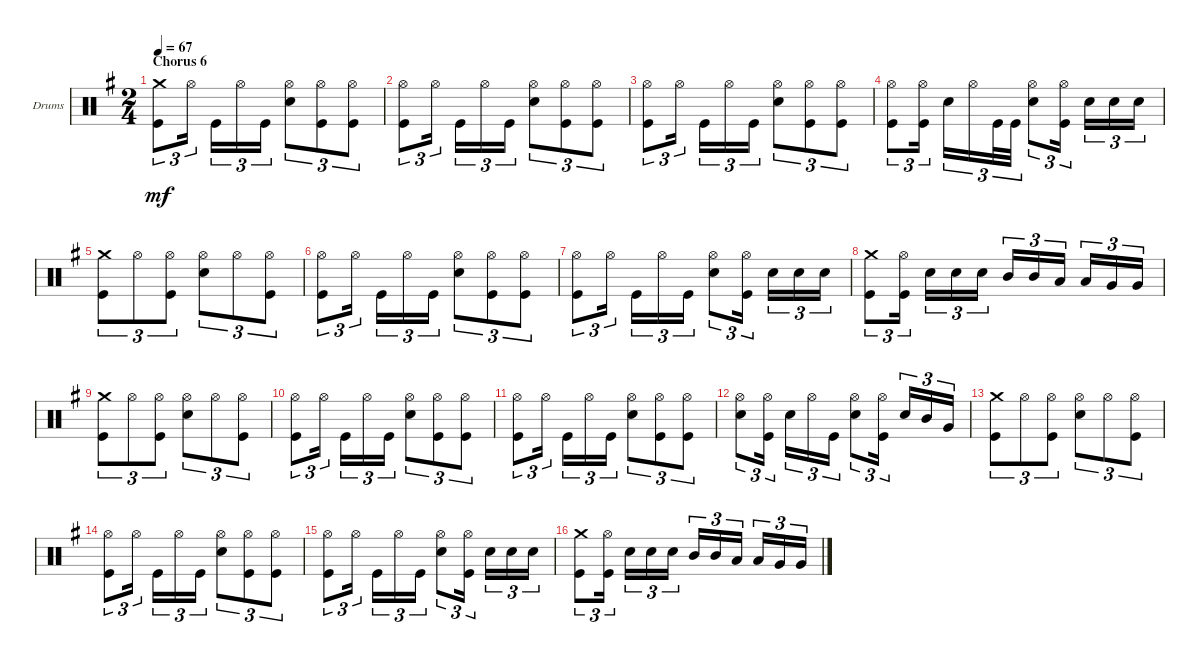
\bracketExtendMode groupsimilarinstruments
\firstSystemTrackNameOrientation horizontal
\otherSystemsTrackNameOrientation horizontal
\track ("drums (Anton Zulganov)" "Drums") {instrument percussion}
\staff {score}
\articulation defaults
\ts (2 4)
\section ("" "Chorus 6")
\tempo 67
\clef neutral
\ks eminor
("Crash medium (hit)" "Kick (hit)").8{tu (3 2) dy mf} "Hi-Hat (open)".16{tu (3 2)} "Kick (hit)".16{tu (3 2)} "Hi-Hat (open)".16{tu (3 2)} "Kick (hit)".16{tu (3 2)} ("Hi-Hat (open)" "Snare (hit) 2").8{tu (3 2)} ("Hi-Hat (open)" "Kick (hit)").8{tu (3 2)} ("Hi-Hat (open)" "Kick (hit)").8{tu (3 2)} |
("Hi-Hat (open)" "Kick (hit)").8{tu (3 2)} "Hi-Hat (open)".16{tu (3 2)} "Kick (hit)".16{tu (3 2)} "Hi-Hat (open)".16{tu (3 2)} "Kick (hit)".16{tu (3 2)} ("Hi-Hat (open)" "Snare (hit) 2").8{tu (3 2)} ("Hi-Hat (open)" "Kick (hit)").8{tu (3 2)} ("Hi-Hat (open)" "Kick (hit)").8{tu (3 2)} |
("Hi-Hat (open)" "Kick (hit)").8{tu (3 2)} "Hi-Hat (open)".16{tu (3 2)} "Kick (hit)".16{tu (3 2)} "Hi-Hat (open)".16{tu (3 2)} "Kick (hit)".16{tu (3 2)} ("Hi-Hat (open)" "Snare (hit) 2").8{tu (3 2)} ("Hi-Hat (open)" "Kick (hit)").8{tu (3 2)} ("Hi-Hat (open)" "Kick (hit)").8{tu (3 2)} |
("Hi-Hat (open)" "Kick (hit)").8{tu (3 2)} ("Hi-Hat (open)" "Kick (hit)").16{tu (3 2)} "Snare (hit) 2".16{tu (3 2)} "Hi-Hat (open)".16{tu (3 2)} "Kick (hit)".32{tu (3 2)} "Kick (hit)".32{tu (3 2)} ("Hi-Hat (open)" "Snare (hit) 2").8{tu (3 2)} ("Hi-Hat (open)" "Kick (hit)").16{tu (3 2)} "Snare (hit) 2".16{tu (3 2)} "Snare (hit) 2".16{tu (3 2)} "Snare (hit) 2".16{tu (3 2)} |
("Crash medium (hit)" "Kick (hit)").8{tu (3 2)} "Hi-Hat (open)".8{tu (3 2)} ("Hi-Hat (open)" "Kick (hit)").8{tu (3 2)} ("Hi-Hat (open)" "Snare (hit) 2").8{tu (3 2)} "Hi-Hat (open)".8{tu (3 2)} ("Hi-Hat (open)" "Kick (hit)").8{tu (3 2)} |
("Hi-Hat (open)" "Kick (hit)").8{tu (3 2)} "Hi-Hat (open)".16{tu (3 2)} "Kick (hit)".16{tu (3 2)} "Hi-Hat (open)".16{tu (3 2)} "Kick (hit)".16{tu (3 2)} ("Hi-Hat (open)" "Snare (hit) 2").8{tu (3 2)} ("Hi-Hat (open)" "Kick (hit)").8{tu (3 2)} ("Hi-Hat (open)" "Kick (hit)").8{tu (3 2)} |
("Hi-Hat (open)" "Kick (hit)").8{tu (3 2)} "Hi-Hat (open)".16{tu (3 2)} "Kick (hit)".16{tu (3 2)} "Hi-Hat (open)".16{tu (3 2)} "Kick (hit)".16{tu (3 2)} ("Hi-Hat (open)" "Snare (hit) 2").8{tu (3 2)} ("Hi-Hat (open)" "Kick (hit)").16{tu (3 2)} "Snare (hit) 2".16{tu (3 2)} "Snare (hit) 2".16{tu (3 2)} "Snare (hit) 2".16{tu (3 2)} |
("Crash medium (hit)" "Kick (hit)").8{tu (3 2)} ("Kick (hit)" "Hi-Hat (open)").16{tu (3 2)} "Snare (hit) 2".16{tu (3 2)} "Snare (hit) 2".16{tu (3 2)} "Snare (hit) 2".16{tu (3 2)} "Mid Tom (hit)".16{tu (3 2)} "Mid Tom (hit)".16{tu (3 2)} "Low Tom (hit)".16{tu (3 2)} "Low Tom (hit)".16{tu (3 2)} "Very Low Tom (hit)".16{tu (3 2)} "Very Low Tom (hit)".16{tu (3 2)} |
("Crash medium (hit)" "Kick (hit)").8{tu (3 2)} "Hi-Hat (open)".8{tu (3 2)} ("Hi-Hat (open)" "Kick (hit)").8{tu (3 2)} ("Hi-Hat (open)" "Snare (hit) 2").8{tu (3 2)} "Hi-Hat (open)".8{tu (3 2)} ("Hi-Hat (open)" "Kick (hit)").8{tu (3 2)} |
("Hi-Hat (open)" "Kick (hit)").8{tu (3 2)} "Hi-Hat (open)".16{tu (3 2)} "Kick (hit)".16{tu (3 2)} "Hi-Hat (open)".16{tu (3 2)} "Kick (hit)".16{tu (3 2)} ("Hi-Hat (open)" "Snare (hit) 2").8{tu (3 2)} ("Hi-Hat (open)" "Kick (hit)").8{tu (3 2)} ("Hi-Hat (open)" "Kick (hit)").8{tu (3 2)} |
("Hi-Hat (open)" "Kick (hit)").8{tu (3 2)} "Hi-Hat (open)".16{tu (3 2)} "Kick (hit)".16{tu (3 2)} "Hi-Hat (open)".16{tu (3 2)} "Kick (hit)".16{tu (3 2)} ("Hi-Hat (open)" "Snare (hit) 2").8{tu (3 2)} ("Hi-Hat (open)" "Kick (hit)").8{tu (3 2)} ("Hi-Hat (open)" "Kick (hit)").8{tu (3 2)} |
("Hi-Hat (open)" "Snare (hit) 2").8{tu (3 2)} ("Hi-Hat (open)" "Kick (hit)").16{tu (3 2)} "Snare (hit) 2".16{tu (3 2)} "Hi-Hat (open)".16{tu (3 2)} "Kick (hit)".16{tu (3 2)} ("Hi-Hat (open)" "Snare (hit) 2").8{tu (3 2)} ("Hi-Hat (open)" "Kick (hit)").16{tu (3 2)} "Snare (hit) 2".16{tu (3 2)} "Mid Tom (hit)".16{tu (3 2)} "Very Low Tom (hit)".16{tu (3 2)} |
("Crash medium (hit)" "Kick (hit)").8{tu (3 2)} "Hi-Hat (open)".8{tu (3 2)} ("Hi-Hat (open)" "Kick (hit)").8{tu (3 2)} ("Hi-Hat (open)" "Snare (hit) 2").8{tu (3 2)} "Hi-Hat (open)".8{tu (3 2)} ("Hi-Hat (open)" "Kick (hit)").8{tu (3 2)} |
("Hi-Hat (open)" "Kick (hit)").8{tu (3 2)} "Hi-Hat (open)".16{tu (3 2)} "Kick (hit)".16{tu (3 2)} "Hi-Hat (open)".16{tu (3 2)} "Kick (hit)".16{tu (3 2)} ("Hi-Hat (open)" "Snare (hit) 2").8{tu (3 2)} ("Hi-Hat (open)" "Kick (hit)").8{tu (3 2)} ("Hi-Hat (open)" "Kick (hit)").8{tu (3 2)} |
("Hi-Hat (open)" "Kick (hit)").8{tu (3 2)} "Hi-Hat (open)".16{tu (3 2)} "Kick (hit)".16{tu (3 2)} "Hi-Hat (open)".16{tu (3 2)} "Kick (hit)".16{tu (3 2)} ("Hi-Hat (open)" "Snare (hit) 2").8{tu (3 2)} ("Hi-Hat (open)" "Kick (hit)").16{tu (3 2)} "Snare (hit) 2".16{tu (3 2)} "Snare (hit) 2".16{tu (3 2)} "Snare (hit) 2".16{tu (3 2)} |
("Crash medium (hit)" "Kick (hit)").8{tu (3 2)} ("Kick (hit)" "Hi-Hat (open)").16{tu (3 2)} "Snare (hit) 2".16{tu (3 2)} "Snare (hit) 2".16{tu (3 2)} "Snare (hit) 2".16{tu (3 2)} "Mid Tom (hit)".16{tu (3 2)} "Mid Tom (hit)".16{tu (3 2)} "Low Tom (hit)".16{tu (3 2)} "Low Tom (hit)".16{tu (3 2)} "Very Low Tom (hit)".16{tu (3 2)} "Very Low Tom (hit)".16{tu (3 2)}
